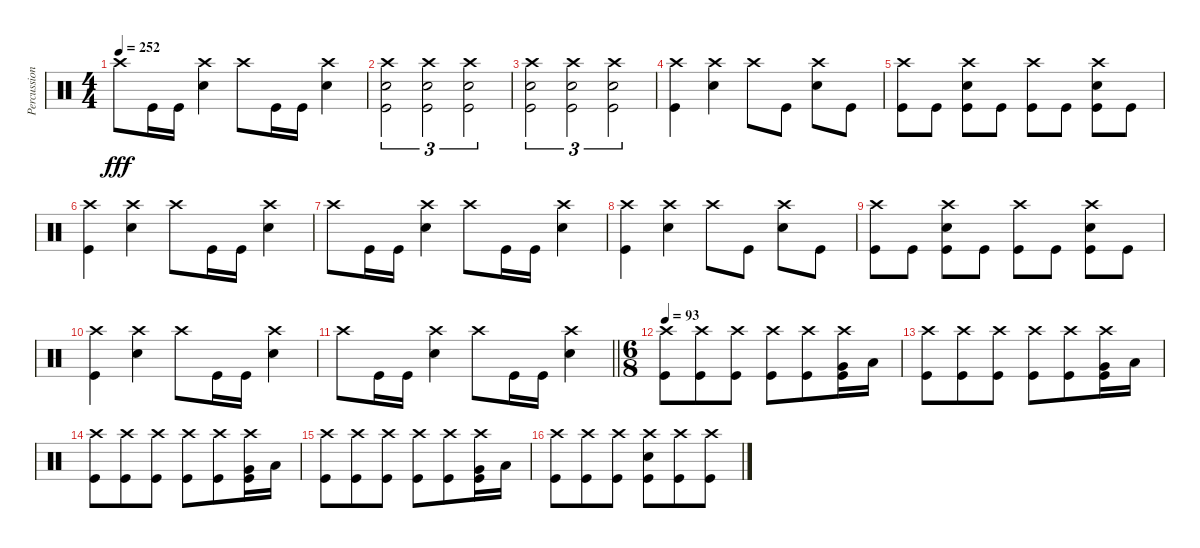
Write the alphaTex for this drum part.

\track ("Percussion" "Percussion") {instrument percussion}
\staff {score}
\articulation defaults
\ts (4 4)
\tempo 252
\clef neutral
\ks c "Crash high (hit)".8{dy fff} "Kick (hit)".16 "Kick (hit)".16
("Crash high (hit)" "Snare (hit) 2").4 "Crash high (hit)".8 "Kick (hit)".16 "Kick (hit)".16 ("Crash high (hit)" "Snare (hit) 2").4 |
("Crash high (hit)" "Snare (hit) 2" "Kick (hit)").2{tu (3 2)} ("Crash high (hit)" "Snare (hit) 2" "Kick (hit)").2{tu (3 2)} ("Crash high (hit)" "Snare (hit) 2" "Kick (hit)").2{tu (3 2)} |
("Crash high (hit)" "Snare (hit) 2" "Kick (hit)").2{tu (3 2)} ("Crash high (hit)" "Snare (hit) 2" "Kick (hit)").2{tu (3 2)} ("Crash high (hit)" "Snare (hit) 2" "Kick (hit)").2{tu (3 2)} |
("Crash high (hit)" "Kick (hit)").4 ("Crash high (hit)" "Snare (hit) 2").4 "Crash high (hit)".8 "Kick (hit)".8 ("Crash high (hit)" "Snare (hit) 2").8 "Kick (hit)".8 |
("Crash high (hit)" "Kick (hit)").8 "Kick (hit)".8 ("Crash high (hit)" "Snare (hit) 2" "Kick (hit)").8 "Kick (hit)".8 ("Crash high (hit)" "Kick (hit)").8 "Kick (hit)".8 ("Crash high (hit)" "Snare (hit) 2" "Kick (hit)").8 "Kick (hit)".8 |
("Crash high (hit)" "Kick (hit)").4 ("Crash high (hit)" "Snare (hit) 2").4 "Crash high (hit)".8 "Kick (hit)".16 "Kick (hit)".16 ("Crash high (hit)" "Snare (hit) 2").4 |
"Crash high (hit)".8 "Kick (hit)".16 "Kick (hit)".16 ("Crash high (hit)" "Snare (hit) 2").4 "Crash high (hit)".8 "Kick (hit)".16 "Kick (hit)".16 ("Crash high (hit)" "Snare (hit) 2").4 |
("Crash high (hit)" "Kick (hit)").4 ("Crash high (hit)" "Snare (hit) 2").4 "Crash high (hit)".8 "Kick (hit)".8 ("Crash high (hit)" "Snare (hit) 2").8 "Kick (hit)".8 |
("Crash high (hit)" "Kick (hit)").8 "Kick (hit)".8 ("Crash high (hit)" "Snare (hit) 2" "Kick (hit)").8 "Kick (hit)".8 ("Crash high (hit)" "Kick (hit)").8 "Kick (hit)".8 ("Crash high (hit)" "Snare (hit) 2" "Kick (hit)").8 "Kick (hit)".8 |
("Crash high (hit)" "Kick (hit)").4 ("Crash high (hit)" "Snare (hit) 2").4 "Crash high (hit)".8 "Kick (hit)".16 "Kick (hit)".16 ("Crash high (hit)" "Snare (hit) 2").4 |
\barLineRight lightlight "Crash high (hit)".8 "Kick (hit)".16 "Kick (hit)".16
("Crash high (hit)" "Snare (hit) 2").4 "Crash high (hit)".8 "Kick (hit)".16 "Kick (hit)".16 ("Crash high (hit)" "Snare (hit) 2").4 |
\ts (6 8)
\tempo 93
("Crash high (hit)" "Kick (hit)").8 ("Crash high (hit)" "Kick (hit)").8 ("Crash high (hit)" "Kick (hit)").8 ("Crash high (hit)" "Kick (hit)").8 ("Crash high (hit)" "Kick (hit)").8 ("Crash high (hit)" "Very Low Tom (hit)" "Kick (hit)").16 "Low Floor Tom (hit)".16 |
("Crash high (hit)" "Kick (hit)").8 ("Crash high (hit)" "Kick (hit)").8 ("Crash high (hit)" "Kick (hit)").8 ("Crash high (hit)" "Kick (hit)").8 ("Crash high (hit)" "Kick (hit)").8 ("Crash high (hit)" "Very Low Tom (hit)" "Kick (hit)").16 "Low Floor Tom (hit)".16 |
("Crash high (hit)" "Kick (hit)").8 ("Crash high (hit)" "Kick (hit)").8 ("Crash high (hit)" "Kick (hit)").8 ("Crash high (hit)" "Kick (hit)").8 ("Crash high (hit)" "Kick (hit)").8 ("Crash high (hit)" "Very Low Tom (hit)" "Kick (hit)").16 "Low Floor Tom (hit)".16 |
("Crash high (hit)" "Kick (hit)").8 ("Crash high (hit)" "Kick (hit)").8 ("Crash high (hit)" "Kick (hit)").8 ("Crash high (hit)" "Kick (hit)").8 ("Crash high (hit)" "Kick (hit)").8 ("Crash high (hit)" "Very Low Tom (hit)" "Kick (hit)").16 "Low Floor Tom (hit)".16 |
("Crash high (hit)" "Kick (hit)").8 ("Crash high (hit)" "Kick (hit)").8 ("Crash high (hit)" "Kick (hit)").8 ("Crash high (hit)" "Snare (hit) 2" "Kick (hit)").8 ("Crash high (hit)" "Kick (hit)").8 ("Crash high (hit)" "Kick (hit)").8
